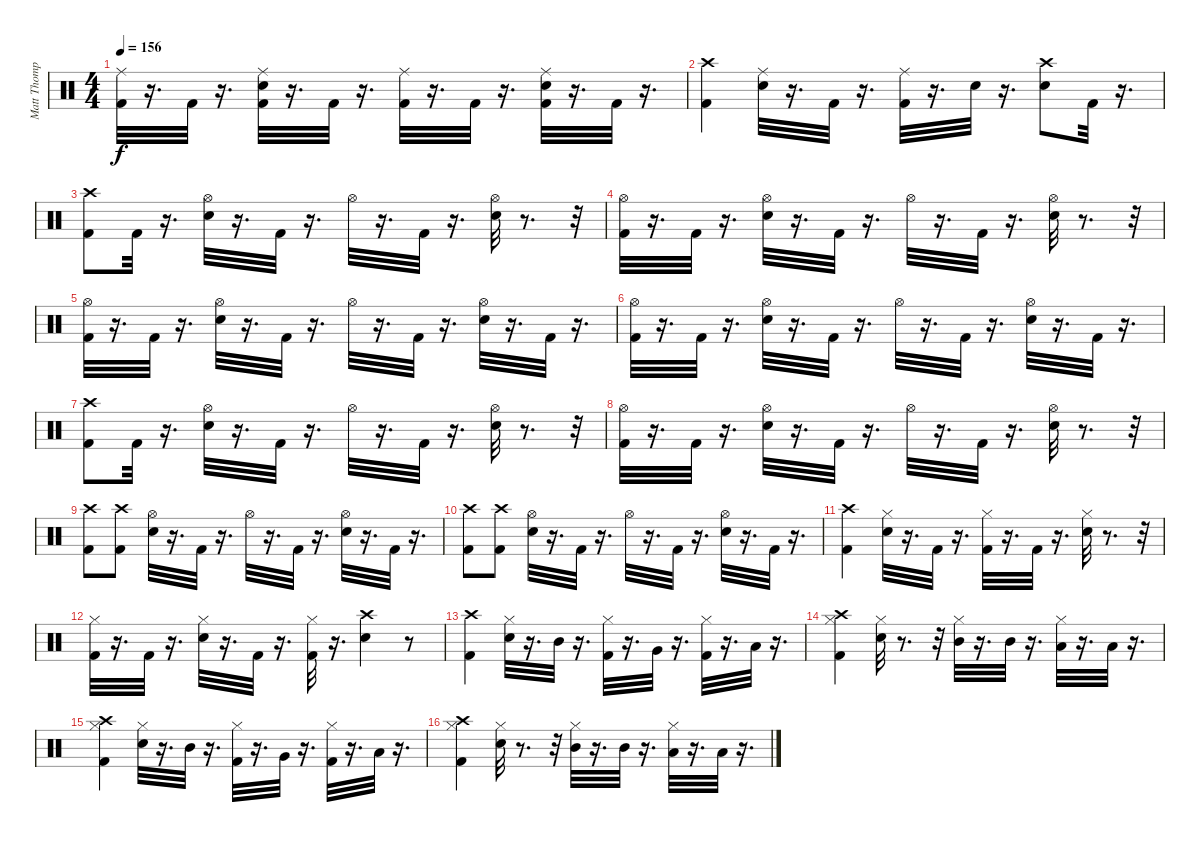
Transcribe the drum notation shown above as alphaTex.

\track ("Matt Thompson" "Matt Thomp") {instrument percussion}
\staff {score}
\articulation defaults
\ts (4 4)
\tempo 156
\clef neutral
\ks c
("Ride (middle)" "Kick (hit) 2").32{dy f} r.16{d} "Kick (hit) 2".32 r.16{d} ("Ride (middle)" "Snare (hit) 2" "Kick (hit) 2").32 r.16{d} "Kick (hit) 2".32 r.16{d} ("Ride (middle)" "Kick (hit) 2").32 r.16{d} "Kick (hit) 2".32 r.16{d} ("Ride (middle)" "Snare (hit) 2" "Kick (hit) 2").32 r.16{d} "Kick (hit) 2".32 r.16{d} |
("Crash high (hit)" "Kick (hit) 2").4 ("Ride (middle)" "Snare (hit) 2").32 r.16{d} "Kick (hit) 2".32 r.16{d} ("Ride (middle)" "Kick (hit) 2").32 r.16{d} "Snare (hit) 2".32 r.16{d} ("Crash high (hit)" "Snare (hit) 2").8 "Kick (hit) 2".32 r.16{d} |
("Crash high (hit)" "Kick (hit) 2").8 "Kick (hit) 2".32 r.16{d} ("Hi-Hat (open)" "Snare (hit) 2").32 r.16{d} "Kick (hit) 2".32 r.16{d} "Hi-Hat (open)".32 r.16{d} "Kick (hit) 2".32 r.16{d} ("Hi-Hat (open)" "Snare (hit) 2").32 r.8{d} r.32 |
("Hi-Hat (open)" "Kick (hit) 2").32 r.16{d} "Kick (hit) 2".32 r.16{d} ("Hi-Hat (open)" "Snare (hit) 2").32 r.16{d} "Kick (hit) 2".32 r.16{d} "Hi-Hat (open)".32 r.16{d} "Kick (hit) 2".32 r.16{d} ("Hi-Hat (open)" "Snare (hit) 2").32 r.8{d} r.32 |
("Hi-Hat (open)" "Kick (hit) 2").32 r.16{d} "Kick (hit) 2".32 r.16{d} ("Hi-Hat (open)" "Snare (hit) 2").32 r.16{d} "Kick (hit) 2".32 r.16{d} "Hi-Hat (open)".32 r.16{d} "Kick (hit) 2".32 r.16{d} ("Hi-Hat (open)" "Snare (hit) 2").32 r.16{d} "Kick (hit) 2".32 r.16{d} |
("Hi-Hat (open)" "Kick (hit) 2").32 r.16{d} "Kick (hit) 2".32 r.16{d} ("Hi-Hat (open)" "Snare (hit) 2").32 r.16{d} "Kick (hit) 2".32 r.16{d} "Hi-Hat (open)".32 r.16{d} "Kick (hit) 2".32 r.16{d} ("Hi-Hat (open)" "Snare (hit) 2").32 r.16{d} "Kick (hit) 2".32 r.16{d} |
("Crash high (hit)" "Kick (hit) 2").8 "Kick (hit) 2".32 r.16{d} ("Hi-Hat (open)" "Snare (hit) 2").32 r.16{d} "Kick (hit) 2".32 r.16{d} "Hi-Hat (open)".32 r.16{d} "Kick (hit) 2".32 r.16{d} ("Hi-Hat (open)" "Snare (hit) 2").32 r.8{d} r.32 |
("Hi-Hat (open)" "Kick (hit) 2").32 r.16{d} "Kick (hit) 2".32 r.16{d} ("Hi-Hat (open)" "Snare (hit) 2").32 r.16{d} "Kick (hit) 2".32 r.16{d} "Hi-Hat (open)".32 r.16{d} "Kick (hit) 2".32 r.16{d} ("Hi-Hat (open)" "Snare (hit) 2").32 r.8{d} r.32 |
("Crash high (hit)" "Kick (hit) 2").8 ("Crash high (hit)" "Kick (hit) 2").8 ("Hi-Hat (open)" "Snare (hit) 2").32 r.16{d} "Kick (hit) 2".32 r.16{d} "Hi-Hat (open)".32 r.16{d} "Kick (hit) 2".32 r.16{d} ("Hi-Hat (open)" "Snare (hit) 2").32 r.16{d} "Kick (hit) 2".32 r.16{d} |
("Crash high (hit)" "Kick (hit) 2").8 ("Crash high (hit)" "Kick (hit) 2").8 ("Hi-Hat (open)" "Snare (hit) 2").32 r.16{d} "Kick (hit) 2".32 r.16{d} "Hi-Hat (open)".32 r.16{d} "Kick (hit) 2".32 r.16{d} ("Hi-Hat (open)" "Snare (hit) 2").32 r.16{d} "Kick (hit) 2".32 r.16{d} |
("Crash high (hit)" "Kick (hit) 2").4 ("Hi-Hat (closed)" "Snare (hit) 2").32 r.16{d} "Kick (hit) 2".32 r.16{d} ("Hi-Hat (closed)" "Kick (hit) 2").32 r.16{d} "Kick (hit) 2".32 r.16{d} ("Hi-Hat (closed)" "Snare (hit) 2").32 r.8{d} r.32 |
("Hi-Hat (closed)" "Kick (hit) 2").32 r.16{d} "Kick (hit) 2".32 r.16{d} ("Hi-Hat (closed)" "Snare (hit) 2").32 r.16{d} "Kick (hit) 2".32 r.16{d} ("Hi-Hat (closed)" "Kick (hit) 2").32 r.16{d} ("Crash high (hit)" "Snare (hit) 2").4 r.8 |
("Crash high (hit)" "Kick (hit) 2").4 ("Hi-Hat (closed)" "Snare (hit) 2").32 r.16{d} "Mid Tom (hit)".32 r.16{d} ("Hi-Hat (closed)" "Kick (hit) 2").32 r.16{d} "Very Low Tom (hit)".32 r.16{d} ("Hi-Hat (closed)" "Kick (hit) 2").32 r.16{d} "Low Floor Tom (hit)".32 r.16{d} |
("Hi-Hat (closed)" "Kick (hit) 2" "Crash high (hit)").4 ("Hi-Hat (closed)" "Snare (hit) 2").32 r.8{d} r.32 ("Hi-Hat (closed)" "Mid Tom (hit)").32 r.16{d} "Mid Tom (hit)".32 r.16{d} ("Hi-Hat (closed)" "Low Tom (hit)").32 r.16{d} "Low Tom (hit)".32 r.16{d} |
("Hi-Hat (closed)" "Crash high (hit)" "Kick (hit) 2").4 ("Hi-Hat (closed)" "Snare (hit) 2").32 r.16{d} "Mid Tom (hit)".32 r.16{d} ("Hi-Hat (closed)" "Kick (hit) 2").32 r.16{d} "Very Low Tom (hit)".32 r.16{d} ("Hi-Hat (closed)" "Kick (hit) 2").32 r.16{d} "Low Floor Tom (hit)".32 r.16{d} |
("Hi-Hat (closed)" "Kick (hit) 2" "Crash high (hit)").4 ("Hi-Hat (closed)" "Snare (hit) 2").32 r.8{d} r.32 ("Hi-Hat (closed)" "Mid Tom (hit)").32 r.16{d} "Mid Tom (hit)".32 r.16{d} ("Hi-Hat (closed)" "Low Tom (hit)").32 r.16{d} "Low Tom (hit)".32 r.16{d}
